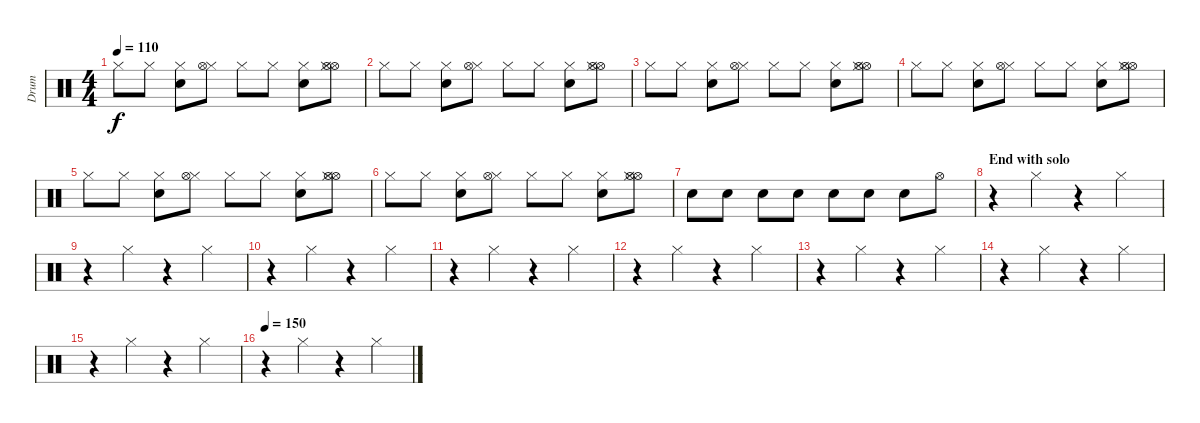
\track ("Drum" "Drum") {instrument percussion}
\staff {score}
\articulation defaults
\ts (4 4)
\tempo 110
\clef neutral
\ks c "Hi-Hat (closed)".8{dy f} "Hi-Hat (closed)".8
("Electric Snare (hit)" "Hi-Hat (closed)").8 ("Hi-Hat (closed)" "Hi-Hat (open)").8 "Hi-Hat (closed)".8 "Hi-Hat (closed)".8 ("Electric Snare (hit)" "Hi-Hat (closed)").8 ("Hi-Hat (open)" "Hi-Hat (closed)" "Hi-Hat (open)").8 |
"Hi-Hat (closed)".8 "Hi-Hat (closed)".8 ("Electric Snare (hit)" "Hi-Hat (closed)").8 ("Hi-Hat (closed)" "Hi-Hat (open)").8 "Hi-Hat (closed)".8 "Hi-Hat (closed)".8 ("Electric Snare (hit)" "Hi-Hat (closed)").8 ("Hi-Hat (open)" "Hi-Hat (closed)" "Hi-Hat (open)").8 |
"Hi-Hat (closed)".8 "Hi-Hat (closed)".8 ("Electric Snare (hit)" "Hi-Hat (closed)").8 ("Hi-Hat (closed)" "Hi-Hat (open)").8 "Hi-Hat (closed)".8 "Hi-Hat (closed)".8 ("Electric Snare (hit)" "Hi-Hat (closed)").8 ("Hi-Hat (open)" "Hi-Hat (closed)" "Hi-Hat (open)").8 |
"Hi-Hat (closed)".8 "Hi-Hat (closed)".8 ("Electric Snare (hit)" "Hi-Hat (closed)").8 ("Hi-Hat (closed)" "Hi-Hat (open)").8 "Hi-Hat (closed)".8 "Hi-Hat (closed)".8 ("Electric Snare (hit)" "Hi-Hat (closed)").8 ("Hi-Hat (open)" "Hi-Hat (closed)" "Hi-Hat (open)").8 |
"Hi-Hat (closed)".8 "Hi-Hat (closed)".8 ("Electric Snare (hit)" "Hi-Hat (closed)").8 ("Hi-Hat (closed)" "Hi-Hat (open)").8 "Hi-Hat (closed)".8 "Hi-Hat (closed)".8 ("Electric Snare (hit)" "Hi-Hat (closed)").8 ("Hi-Hat (open)" "Hi-Hat (closed)" "Hi-Hat (open)").8 |
"Hi-Hat (closed)".8 "Hi-Hat (closed)".8 ("Electric Snare (hit)" "Hi-Hat (closed)").8 ("Hi-Hat (closed)" "Hi-Hat (open)").8 "Hi-Hat (closed)".8 "Hi-Hat (closed)".8 ("Electric Snare (hit)" "Hi-Hat (closed)").8 ("Hi-Hat (open)" "Hi-Hat (closed)" "Hi-Hat (open)").8 |
"Electric Snare (hit)".8 "Electric Snare (hit)".8 "Electric Snare (hit)".8 "Electric Snare (hit)".8 "Electric Snare (hit)".8 "Electric Snare (hit)".8 "Electric Snare (hit)".8 "Hi-Hat (open)".8 |
\section ("" "End with solo")
r.4 "Hi-Hat (closed)".4 r.4 "Hi-Hat (closed)".4 |
r.4 "Hi-Hat (closed)".4 r.4 "Hi-Hat (closed)".4 |
r.4 "Hi-Hat (closed)".4 r.4 "Hi-Hat (closed)".4 |
r.4 "Hi-Hat (closed)".4 r.4 "Hi-Hat (closed)".4 |
r.4 "Hi-Hat (closed)".4 r.4 "Hi-Hat (closed)".4 |
r.4 "Hi-Hat (closed)".4 r.4 "Hi-Hat (closed)".4 |
r.4 "Hi-Hat (closed)".4 r.4 "Hi-Hat (closed)".4 |
r.4 "Hi-Hat (closed)".4 r.4 "Hi-Hat (closed)".4 |
\tempo 150
r.4 "Hi-Hat (closed)".4 r.4 "Hi-Hat (closed)".4
